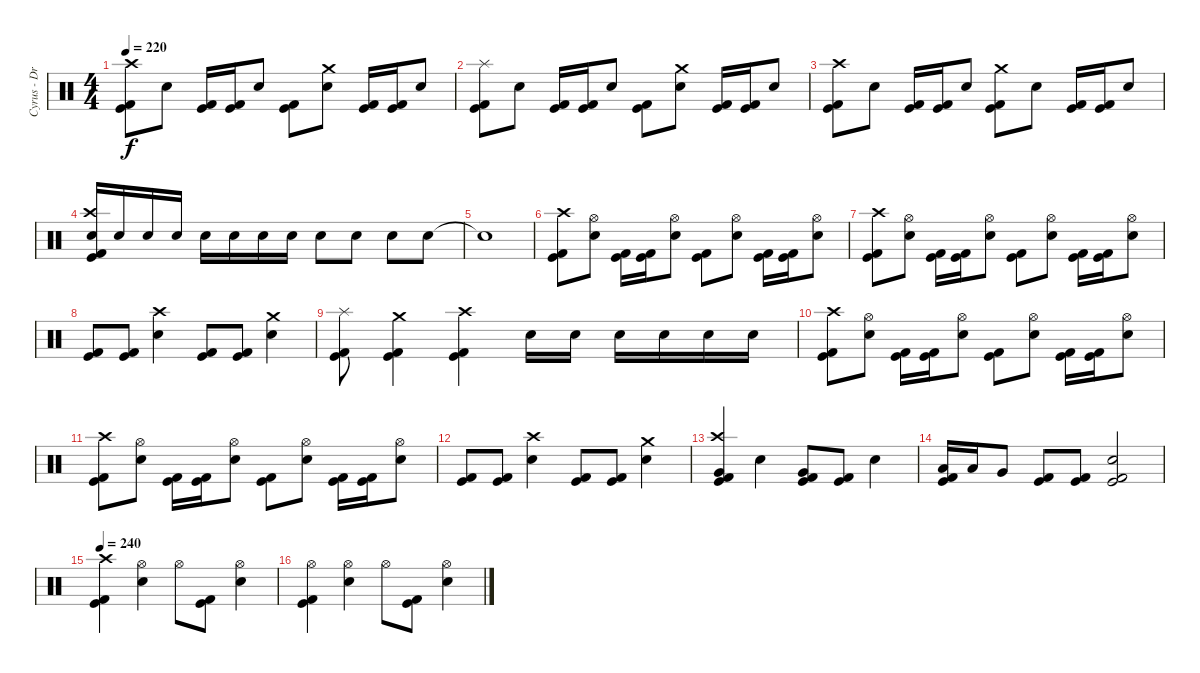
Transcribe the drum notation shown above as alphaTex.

\track ("Cyrus - Drums" "Cyrus - Dr") {instrument percussion}
\staff {score}
\articulation defaults
\ts (4 4)
\tempo 220
\clef neutral
\ks c
("Kick (hit)" "Kick (hit) 2" "Crash high (hit)").8{dy f} "Electric Snare (hit)".8 ("Kick (hit)" "Kick (hit) 2").16 ("Kick (hit)" "Kick (hit) 2").16 "Electric Snare (hit)".8 ("Kick (hit)" "Kick (hit) 2").8 ("Electric Snare (hit)" "Crash medium (hit)").8 ("Kick (hit)" "Kick (hit) 2").16 ("Kick (hit)" "Kick (hit) 2").16 "Electric Snare (hit)".8 |
("Kick (hit)" "Kick (hit) 2" "Splash (hit)").8 "Electric Snare (hit)".8 ("Kick (hit)" "Kick (hit) 2").16 ("Kick (hit)" "Kick (hit) 2").16 "Electric Snare (hit)".8 ("Kick (hit)" "Kick (hit) 2").8 ("Electric Snare (hit)" "Crash medium (hit)").8 ("Kick (hit)" "Kick (hit) 2").16 ("Kick (hit)" "Kick (hit) 2").16 "Electric Snare (hit)".8 |
("Kick (hit)" "Kick (hit) 2" "Crash high (hit)").8 "Electric Snare (hit)".8 ("Kick (hit)" "Kick (hit) 2").16 ("Kick (hit)" "Kick (hit) 2").16 "Electric Snare (hit)".8 ("Kick (hit)" "Kick (hit) 2" "Crash medium (hit)").8 "Electric Snare (hit)".8 ("Kick (hit)" "Kick (hit) 2").16 ("Kick (hit)" "Kick (hit) 2").16 "Electric Snare (hit)".8 |
("Kick (hit)" "Kick (hit) 2" "Electric Snare (hit)" "Crash high (hit)").16 "Electric Snare (hit)".16 "Electric Snare (hit)".16 "Electric Snare (hit)".16 "Electric Snare (hit)".16 "Electric Snare (hit)".16 "Electric Snare (hit)".16 "Electric Snare (hit)".16 "Electric Snare (hit)".8 "Electric Snare (hit)".8 "Electric Snare (hit)".8 "Electric Snare (hit)".8 |
"Snare (hit)"{t}.1 |
("Kick (hit)" "Kick (hit) 2" "Crash high (hit)").8 ("Electric Snare (hit)" "Hi-Hat (open)").8 ("Kick (hit)" "Kick (hit) 2").16 ("Kick (hit)" "Kick (hit) 2").16 ("Electric Snare (hit)" "Hi-Hat (open)").8 ("Kick (hit)" "Kick (hit) 2").8 ("Electric Snare (hit)" "Hi-Hat (open)").8 ("Kick (hit)" "Kick (hit) 2").16 ("Kick (hit)" "Kick (hit) 2").16 ("Electric Snare (hit)" "Hi-Hat (open)").8 |
("Kick (hit)" "Kick (hit) 2" "Crash high (hit)").8 ("Electric Snare (hit)" "Hi-Hat (open)").8 ("Kick (hit)" "Kick (hit) 2").16 ("Kick (hit)" "Kick (hit) 2").16 ("Electric Snare (hit)" "Hi-Hat (open)").8 ("Kick (hit)" "Kick (hit) 2").8 ("Electric Snare (hit)" "Hi-Hat (open)").8 ("Kick (hit)" "Kick (hit) 2").16 ("Kick (hit)" "Kick (hit) 2").16 ("Electric Snare (hit)" "Hi-Hat (open)").8 |
("Kick (hit)" "Kick (hit) 2").8 ("Kick (hit)" "Kick (hit) 2").8 ("Electric Snare (hit)" "Crash high (hit)").4 ("Kick (hit)" "Kick (hit) 2").8 ("Kick (hit)" "Kick (hit) 2").8 ("Electric Snare (hit)" "Crash medium (hit)").4 |
("Kick (hit)" "Kick (hit) 2" "Splash (hit)").8 ("Kick (hit)" "Kick (hit) 2" "Crash medium (hit)").4 ("Kick (hit)" "Kick (hit) 2" "Crash high (hit)").4 "Electric Snare (hit)".16 "Electric Snare (hit)".16 "Electric Snare (hit)".16 "Electric Snare (hit)".16 "Electric Snare (hit)".16 "Electric Snare (hit)".16 |
("Kick (hit)" "Kick (hit) 2" "Crash high (hit)").8 ("Electric Snare (hit)" "Hi-Hat (open)").8 ("Kick (hit)" "Kick (hit) 2").16 ("Kick (hit)" "Kick (hit) 2").16 ("Electric Snare (hit)" "Hi-Hat (open)").8 ("Kick (hit)" "Kick (hit) 2").8 ("Electric Snare (hit)" "Hi-Hat (open)").8 ("Kick (hit)" "Kick (hit) 2").16 ("Kick (hit)" "Kick (hit) 2").16 ("Electric Snare (hit)" "Hi-Hat (open)").8 |
("Kick (hit)" "Kick (hit) 2" "Crash high (hit)").8 ("Electric Snare (hit)" "Hi-Hat (open)").8 ("Kick (hit)" "Kick (hit) 2").16 ("Kick (hit)" "Kick (hit) 2").16 ("Electric Snare (hit)" "Hi-Hat (open)").8 ("Kick (hit)" "Kick (hit) 2").8 ("Electric Snare (hit)" "Hi-Hat (open)").8 ("Kick (hit)" "Kick (hit) 2").16 ("Kick (hit)" "Kick (hit) 2").16 ("Electric Snare (hit)" "Hi-Hat (open)").8 |
("Kick (hit)" "Kick (hit) 2").8 ("Kick (hit)" "Kick (hit) 2").8 ("Electric Snare (hit)" "Crash high (hit)").4 ("Kick (hit)" "Kick (hit) 2").8 ("Kick (hit)" "Kick (hit) 2").8 ("Electric Snare (hit)" "Crash medium (hit)").4 |
("Kick (hit)" "Kick (hit) 2" "Very Low Tom (hit)" "Crash high (hit)").4 "Electric Snare (hit)".4 ("Kick (hit)" "Kick (hit) 2" "Very Low Tom (hit)").8 ("Kick (hit)" "Kick (hit) 2").8 "Electric Snare (hit)".4 |
("Kick (hit)" "Kick (hit) 2" "Low Tom (hit)").16 "Low Tom (hit)".16 "Very Low Tom (hit)".8 ("Kick (hit)" "Kick (hit) 2").8 ("Kick (hit)" "Kick (hit) 2").8 ("Kick (hit)" "Kick (hit) 2" "Electric Snare (hit)").2 |
\tempo 240
("Kick (hit)" "Kick (hit) 2" "Crash high (hit)").4 ("Electric Snare (hit)" "Hi-Hat (open)").4 "Hi-Hat (open)".8 ("Kick (hit)" "Kick (hit) 2").8 ("Electric Snare (hit)" "Hi-Hat (open)").4 |
("Kick (hit)" "Kick (hit) 2" "Hi-Hat (open)").4 ("Electric Snare (hit)" "Hi-Hat (open)").4 "Hi-Hat (open)".8 ("Kick (hit)" "Kick (hit) 2").8 ("Electric Snare (hit)" "Hi-Hat (open)").4
